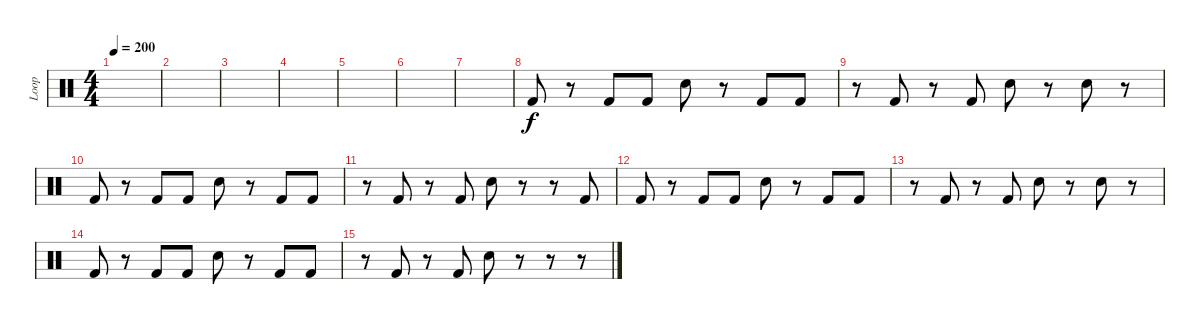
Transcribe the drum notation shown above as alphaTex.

\track ("Loop" "Loop") {instrument percussion}
\staff {score}
\articulation defaults
\ts (4 4)
\tempo 200
\clef neutral
\ks c
|
|
|
|
|
|
|
"Kick (hit) 2".8{volume 7} r.8 "Kick (hit) 2".8 "Kick (hit) 2".8 "Snare (hit) 2".8 r.8 "Kick (hit) 2".8 "Kick (hit) 2".8 |
r.8 "Kick (hit) 2".8 r.8 "Kick (hit) 2".8 "Snare (hit) 2".8 r.8 "Snare (hit) 2".8 r.8 |
"Kick (hit) 2".8 r.8 "Kick (hit) 2".8 "Kick (hit) 2".8 "Snare (hit) 2".8 r.8 "Kick (hit) 2".8 "Kick (hit) 2".8 |
r.8 "Kick (hit) 2".8 r.8 "Kick (hit) 2".8 "Snare (hit) 2".8 r.8 r.8 "Kick (hit) 2".8 |
"Kick (hit) 2".8 r.8 "Kick (hit) 2".8 "Kick (hit) 2".8 "Snare (hit) 2".8 r.8 "Kick (hit) 2".8 "Kick (hit) 2".8 |
r.8 "Kick (hit) 2".8 r.8 "Kick (hit) 2".8 "Snare (hit) 2".8 r.8 "Snare (hit) 2".8 r.8 |
"Kick (hit) 2".8 r.8 "Kick (hit) 2".8 "Kick (hit) 2".8 "Snare (hit) 2".8 r.8 "Kick (hit) 2".8 "Kick (hit) 2".8 |
r.8 "Kick (hit) 2".8 r.8 "Kick (hit) 2".8 "Snare (hit) 2".8 r.8 r.8 r.8
